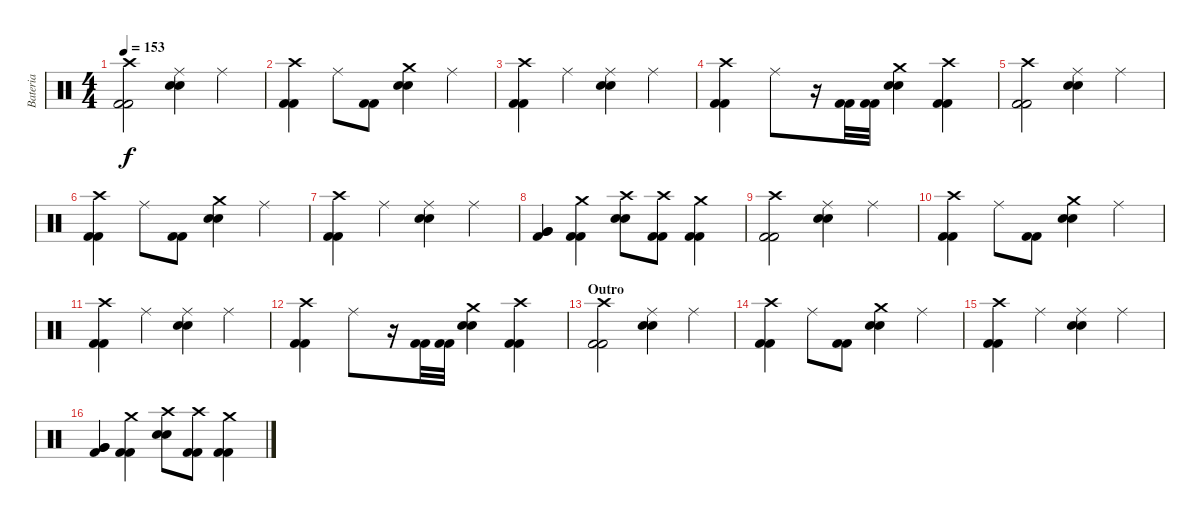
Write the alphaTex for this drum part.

\track ("Bateria" "Bateria") {instrument percussion}
\staff {score}
\articulation defaults
\ts (4 4)
\tempo 153
\clef neutral
\ks c
("Crash high (hit)" "Kick (hit) 2" "Kick (hit) 2").2{dy f} ("Ride (middle)" "Snare (hit) 2" "Snare (hit) 2").4 "Ride (middle)".4 |
("Crash high (hit)" "Kick (hit) 2" "Kick (hit) 2").4 "Ride (middle)".8 ("Kick (hit) 2" "Kick (hit) 2").8 ("Crash medium (hit)" "Snare (hit) 2" "Snare (hit) 2").4 "Ride (middle)".4 |
("Crash high (hit)" "Kick (hit) 2" "Kick (hit) 2").4 "Ride (middle)".4 ("Ride (middle)" "Snare (hit) 2" "Snare (hit) 2").4 "Ride (middle)".4 |
("Crash high (hit)" "Kick (hit) 2" "Kick (hit) 2").4 "Ride (middle)".8 r.16 ("Kick (hit) 2" "Kick (hit) 2").32 ("Kick (hit) 2" "Kick (hit) 2").32 ("Crash medium (hit)" "Snare (hit) 2" "Snare (hit) 2").4 ("Crash high (hit)" "Kick (hit) 2" "Kick (hit) 2").4 |
("Crash high (hit)" "Kick (hit) 2" "Kick (hit) 2").2 ("Ride (middle)" "Snare (hit) 2" "Snare (hit) 2").4 "Ride (middle)".4 |
("Crash high (hit)" "Kick (hit) 2" "Kick (hit) 2").4 "Ride (middle)".8 ("Kick (hit) 2" "Kick (hit) 2").8 ("Crash medium (hit)" "Snare (hit) 2" "Snare (hit) 2").4 "Ride (middle)".4 |
("Crash high (hit)" "Kick (hit) 2" "Kick (hit) 2").4 "Ride (middle)".4 ("Ride (middle)" "Snare (hit) 2" "Snare (hit) 2").4 "Ride (middle)".4 |
("Very Low Tom (hit)" "Very Low Tom (hit)" "Kick (hit) 2").4 ("Crash medium (hit)" "Kick (hit) 2" "Kick (hit) 2").4 ("Crash high (hit)" "Snare (hit) 2" "Snare (hit) 2").8 ("Crash high (hit)" "Kick (hit) 2" "Kick (hit) 2").8 ("Crash medium (hit)" "Kick (hit) 2" "Kick (hit) 2").4 |
("Crash high (hit)" "Kick (hit) 2" "Kick (hit) 2").2 ("Ride (middle)" "Snare (hit) 2" "Snare (hit) 2").4 "Ride (middle)".4 |
("Crash high (hit)" "Kick (hit) 2" "Kick (hit) 2").4 "Ride (middle)".8 ("Kick (hit) 2" "Kick (hit) 2").8 ("Crash medium (hit)" "Snare (hit) 2" "Snare (hit) 2").4 "Ride (middle)".4 |
("Crash high (hit)" "Kick (hit) 2" "Kick (hit) 2").4 "Ride (middle)".4 ("Ride (middle)" "Snare (hit) 2" "Snare (hit) 2").4 "Ride (middle)".4 |
("Crash high (hit)" "Kick (hit) 2" "Kick (hit) 2").4 "Ride (middle)".8 r.16 ("Kick (hit) 2" "Kick (hit) 2").32 ("Kick (hit) 2" "Kick (hit) 2").32 ("Crash medium (hit)" "Snare (hit) 2" "Snare (hit) 2").4 ("Crash high (hit)" "Kick (hit) 2" "Kick (hit) 2").4 |
\section ("" "Outro")
("Crash high (hit)" "Kick (hit) 2" "Kick (hit) 2").2 ("Ride (middle)" "Snare (hit) 2" "Snare (hit) 2").4 "Ride (middle)".4 |
("Crash high (hit)" "Kick (hit) 2" "Kick (hit) 2").4 "Ride (middle)".8 ("Kick (hit) 2" "Kick (hit) 2").8 ("Crash medium (hit)" "Snare (hit) 2" "Snare (hit) 2").4 "Ride (middle)".4 |
("Crash high (hit)" "Kick (hit) 2" "Kick (hit) 2").4 "Ride (middle)".4 ("Ride (middle)" "Snare (hit) 2" "Snare (hit) 2").4 "Ride (middle)".4 |
("Very Low Tom (hit)" "Very Low Tom (hit)" "Kick (hit) 2").4 ("Crash medium (hit)" "Kick (hit) 2" "Kick (hit) 2").4 ("Crash high (hit)" "Snare (hit) 2" "Snare (hit) 2").8 ("Crash high (hit)" "Kick (hit) 2" "Kick (hit) 2").8 ("Crash medium (hit)" "Kick (hit) 2" "Kick (hit) 2").4
